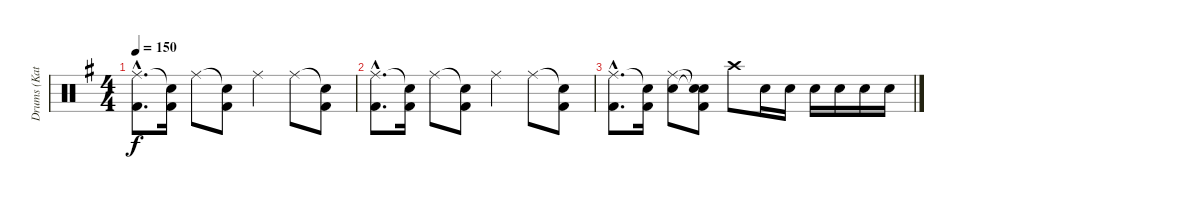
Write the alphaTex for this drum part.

\track ("Drums (Katsuji)" "Drums (Kat") {instrument percussion}
\staff {score}
\articulation defaults
\ts (4 4)
\tempo 150
\clef neutral
\ks g
("Ride (middle)"{hac} "Kick (hit) 2"{hac}).8{d dy f} ("Snare (hit)"{t} "Kick (hit) 2").16 "Ride (middle)".8 ("Snare (hit)"{t} "Kick (hit) 2").8 "Ride (middle)".4 "Ride (middle)".8 ("Snare (hit)"{t} "Kick (hit) 2").8 |
("Ride (middle)"{hac} "Kick (hit) 2"{hac}).8{d} ("Snare (hit)"{t} "Kick (hit) 2").16 "Ride (middle)".8 ("Snare (hit)"{t} "Kick (hit) 2").8 "Ride (middle)".4 "Ride (middle)".8 ("Snare (hit)"{t} "Kick (hit) 2").8 |
("Ride (middle)"{hac} "Kick (hit) 2"{hac}).8{d} ("Snare (hit)"{t} "Kick (hit) 2").16 ("Ride (middle)" "Snare (hit) 2").8 ("Snare (hit)"{t} "Snare (hit)"{t} "Kick (hit) 2").8 "Crash high (hit)".8 "Snare (hit) 2".16 "Snare (hit) 2".16 "Snare (hit) 2".16 "Snare (hit) 2".16 "Snare (hit) 2".16 "Snare (hit) 2".16
